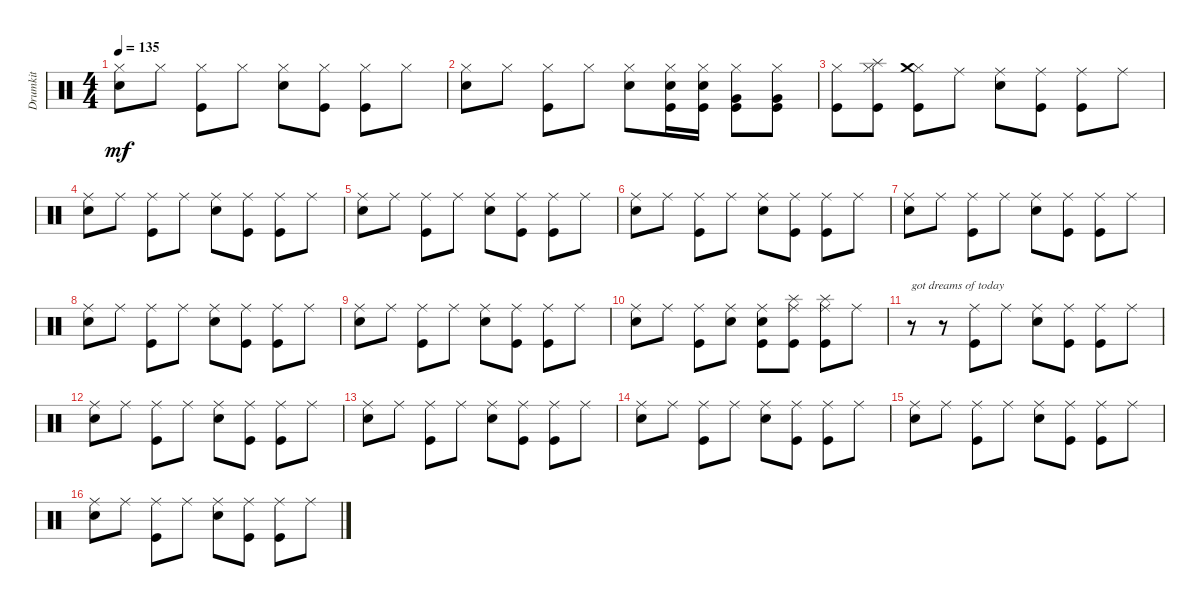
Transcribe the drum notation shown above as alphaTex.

\track ("Drumkit" "Drumkit") {instrument percussion}
\staff {score}
\articulation defaults
\ts (4 4)
\tempo 135
\clef neutral
\ks c
("Snare (hit) 2" "Hi-Hat (closed)").8{dy mf} "Hi-Hat (closed)".8 ("Hi-Hat (closed)" "Kick (hit)").8 "Hi-Hat (closed)".8 ("Hi-Hat (closed)" "Snare (hit) 2").8 ("Hi-Hat (closed)" "Kick (hit)").8 ("Hi-Hat (closed)" "Kick (hit)").8 "Hi-Hat (closed)".8 |
("Snare (hit) 2" "Hi-Hat (closed)").8 "Hi-Hat (closed)".8 ("Hi-Hat (closed)" "Kick (hit)").8 "Hi-Hat (closed)".8 ("Hi-Hat (closed)" "Snare (hit) 2").8 ("Hi-Hat (closed)" "Kick (hit)" "Snare (hit) 2").16 ("Hi-Hat (closed)" "Kick (hit)" "Snare (hit) 2").16 ("Hi-Hat (closed)" "Kick (hit)" "Very Low Tom (hit)").8 ("Hi-Hat (closed)" "Kick (hit)" "Very Low Tom (hit)").8 |
("Hi-Hat (closed)" "Kick (hit)").8 ("Hi-Hat (closed)" "Kick (hit)" "Splash (hit)").8 ("Hi-Hat (closed)" "Kick (hit)" "Crash medium (hit)").8 "Ride (middle)".8 ("Snare (hit) 2" "Ride (middle)").8 ("Kick (hit)" "Ride (middle)").8 ("Kick (hit)" "Ride (middle)").8 "Ride (middle)".8 |
("Snare (hit) 2" "Ride (middle)").8 "Ride (middle)".8 ("Kick (hit)" "Ride (middle)").8 "Ride (middle)".8 ("Snare (hit) 2" "Ride (middle)").8 ("Kick (hit)" "Ride (middle)").8 ("Kick (hit)" "Ride (middle)").8 "Ride (middle)".8 |
("Snare (hit) 2" "Ride (middle)").8 "Ride (middle)".8 ("Kick (hit)" "Ride (middle)").8 "Ride (middle)".8 ("Snare (hit) 2" "Ride (middle)").8 ("Kick (hit)" "Ride (middle)").8 ("Kick (hit)" "Ride (middle)").8 "Ride (middle)".8 |
("Snare (hit) 2" "Ride (middle)").8 "Ride (middle)".8 ("Kick (hit)" "Ride (middle)").8 "Ride (middle)".8 ("Snare (hit) 2" "Ride (middle)").8 ("Kick (hit)" "Ride (middle)").8 ("Kick (hit)" "Ride (middle)").8 "Ride (middle)".8 |
("Snare (hit) 2" "Ride (middle)").8 "Ride (middle)".8 ("Kick (hit)" "Ride (middle)").8 "Ride (middle)".8 ("Snare (hit) 2" "Ride (middle)").8 ("Kick (hit)" "Ride (middle)").8 ("Kick (hit)" "Ride (middle)").8 "Ride (middle)".8 |
("Snare (hit) 2" "Ride (middle)").8 "Ride (middle)".8 ("Kick (hit)" "Ride (middle)").8 "Ride (middle)".8 ("Snare (hit) 2" "Ride (middle)").8 ("Kick (hit)" "Ride (middle)").8 ("Kick (hit)" "Ride (middle)").8 "Ride (middle)".8 |
("Snare (hit) 2" "Ride (middle)").8 "Ride (middle)".8 ("Kick (hit)" "Ride (middle)").8 "Ride (middle)".8 ("Snare (hit) 2" "Ride (middle)").8 ("Kick (hit)" "Ride (middle)").8 ("Kick (hit)" "Ride (middle)").8 "Ride (middle)".8 |
("Snare (hit) 2" "Ride (middle)").8 "Ride (middle)".8 ("Kick (hit)" "Ride (middle)").8 ("Snare (hit) 2" "Ride (middle)").8 ("Snare (hit) 2" "Ride (middle)" "Kick (hit)").8 ("Ride (middle)" "Kick (hit)" "Splash (hit)").8 ("Ride (middle)" "Kick (hit)" "Splash (hit)").8 "Ride (middle)".8 |
r.8{txt "got dreams of today"} r.8 ("Kick (hit)" "Ride (middle)").8 "Ride (middle)".8 ("Snare (hit) 2" "Ride (middle)").8 ("Kick (hit)" "Ride (middle)").8 ("Kick (hit)" "Ride (middle)").8 "Ride (middle)".8 |
("Snare (hit) 2" "Ride (middle)").8 "Ride (middle)".8 ("Kick (hit)" "Ride (middle)").8 "Ride (middle)".8 ("Snare (hit) 2" "Ride (middle)").8 ("Kick (hit)" "Ride (middle)").8 ("Kick (hit)" "Ride (middle)").8 "Ride (middle)".8 |
("Snare (hit) 2" "Ride (middle)").8 "Ride (middle)".8 ("Kick (hit)" "Ride (middle)").8 "Ride (middle)".8 ("Snare (hit) 2" "Ride (middle)").8 ("Kick (hit)" "Ride (middle)").8 ("Kick (hit)" "Ride (middle)").8 "Ride (middle)".8 |
("Snare (hit) 2" "Ride (middle)").8 "Ride (middle)".8 ("Kick (hit)" "Ride (middle)").8 "Ride (middle)".8 ("Snare (hit) 2" "Ride (middle)").8 ("Kick (hit)" "Ride (middle)").8 ("Kick (hit)" "Ride (middle)").8 "Ride (middle)".8 |
("Snare (hit) 2" "Ride (middle)").8 "Ride (middle)".8 ("Kick (hit)" "Ride (middle)").8 "Ride (middle)".8 ("Snare (hit) 2" "Ride (middle)").8 ("Kick (hit)" "Ride (middle)").8 ("Kick (hit)" "Ride (middle)").8 "Ride (middle)".8 |
("Snare (hit) 2" "Ride (middle)").8 "Ride (middle)".8 ("Kick (hit)" "Ride (middle)").8 "Ride (middle)".8 ("Snare (hit) 2" "Ride (middle)").8 ("Kick (hit)" "Ride (middle)").8 ("Kick (hit)" "Ride (middle)").8 "Ride (middle)".8
